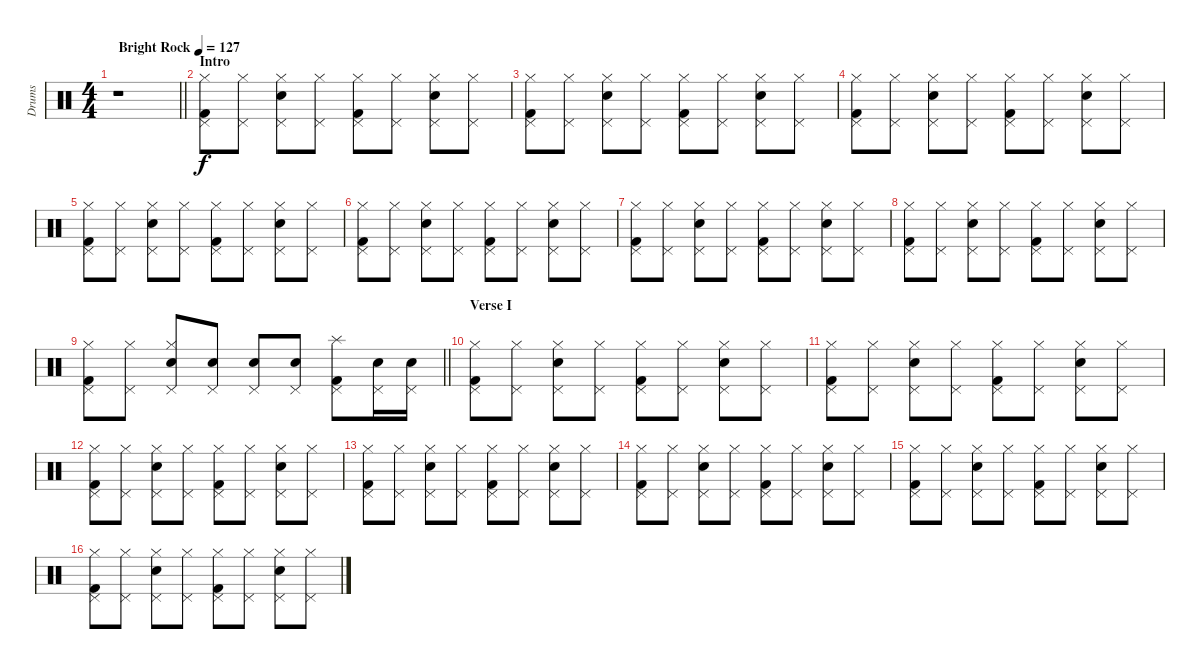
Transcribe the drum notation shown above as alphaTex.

\track ("Drums" "Drums") {instrument percussion}
\staff {score}
\articulation defaults
\ts (4 4)
\tempo (127 "Bright Rock")
\clef neutral
\barLineRight lightlight
\ks c
r.1{dy f} |
\section ("" "Intro")
("Pedal Hi-Hat (hit)" "Hi-Hat (closed)" "Kick (hit) 2").8 ("Pedal Hi-Hat (hit)" "Hi-Hat (closed)").8 ("Pedal Hi-Hat (hit)" "Hi-Hat (closed)" "Electric Snare (hit)").8 ("Pedal Hi-Hat (hit)" "Hi-Hat (closed)").8 ("Pedal Hi-Hat (hit)" "Hi-Hat (closed)" "Kick (hit) 2").8 ("Pedal Hi-Hat (hit)" "Hi-Hat (closed)").8 ("Pedal Hi-Hat (hit)" "Hi-Hat (closed)" "Electric Snare (hit)").8 ("Pedal Hi-Hat (hit)" "Hi-Hat (closed)").8 |
("Pedal Hi-Hat (hit)" "Hi-Hat (closed)" "Kick (hit) 2").8 ("Pedal Hi-Hat (hit)" "Hi-Hat (closed)").8 ("Pedal Hi-Hat (hit)" "Hi-Hat (closed)" "Electric Snare (hit)").8 ("Pedal Hi-Hat (hit)" "Hi-Hat (closed)").8 ("Pedal Hi-Hat (hit)" "Hi-Hat (closed)" "Kick (hit) 2").8 ("Pedal Hi-Hat (hit)" "Hi-Hat (closed)").8 ("Pedal Hi-Hat (hit)" "Hi-Hat (closed)" "Electric Snare (hit)").8 ("Pedal Hi-Hat (hit)" "Hi-Hat (closed)").8 |
("Pedal Hi-Hat (hit)" "Hi-Hat (closed)" "Kick (hit) 2").8 ("Pedal Hi-Hat (hit)" "Hi-Hat (closed)").8 ("Pedal Hi-Hat (hit)" "Hi-Hat (closed)" "Electric Snare (hit)").8 ("Pedal Hi-Hat (hit)" "Hi-Hat (closed)").8 ("Pedal Hi-Hat (hit)" "Hi-Hat (closed)" "Kick (hit) 2").8 ("Pedal Hi-Hat (hit)" "Hi-Hat (closed)").8 ("Pedal Hi-Hat (hit)" "Hi-Hat (closed)" "Electric Snare (hit)").8 ("Pedal Hi-Hat (hit)" "Hi-Hat (closed)").8 |
("Pedal Hi-Hat (hit)" "Hi-Hat (closed)" "Kick (hit) 2").8 ("Pedal Hi-Hat (hit)" "Hi-Hat (closed)").8 ("Pedal Hi-Hat (hit)" "Hi-Hat (closed)" "Electric Snare (hit)").8 ("Pedal Hi-Hat (hit)" "Hi-Hat (closed)").8 ("Pedal Hi-Hat (hit)" "Hi-Hat (closed)" "Kick (hit) 2").8 ("Pedal Hi-Hat (hit)" "Hi-Hat (closed)").8 ("Pedal Hi-Hat (hit)" "Hi-Hat (closed)" "Electric Snare (hit)").8 ("Pedal Hi-Hat (hit)" "Hi-Hat (closed)").8 |
("Pedal Hi-Hat (hit)" "Hi-Hat (closed)" "Kick (hit) 2").8 ("Pedal Hi-Hat (hit)" "Hi-Hat (closed)").8 ("Pedal Hi-Hat (hit)" "Hi-Hat (closed)" "Electric Snare (hit)").8 ("Pedal Hi-Hat (hit)" "Hi-Hat (closed)").8 ("Pedal Hi-Hat (hit)" "Hi-Hat (closed)" "Kick (hit) 2").8 ("Pedal Hi-Hat (hit)" "Hi-Hat (closed)").8 ("Pedal Hi-Hat (hit)" "Hi-Hat (closed)" "Electric Snare (hit)").8 ("Pedal Hi-Hat (hit)" "Hi-Hat (closed)").8 |
("Pedal Hi-Hat (hit)" "Hi-Hat (closed)" "Kick (hit) 2").8 ("Pedal Hi-Hat (hit)" "Hi-Hat (closed)").8 ("Pedal Hi-Hat (hit)" "Hi-Hat (closed)" "Electric Snare (hit)").8 ("Pedal Hi-Hat (hit)" "Hi-Hat (closed)").8 ("Pedal Hi-Hat (hit)" "Hi-Hat (closed)" "Kick (hit) 2").8 ("Pedal Hi-Hat (hit)" "Hi-Hat (closed)").8 ("Pedal Hi-Hat (hit)" "Hi-Hat (closed)" "Electric Snare (hit)").8 ("Pedal Hi-Hat (hit)" "Hi-Hat (closed)").8 |
("Pedal Hi-Hat (hit)" "Hi-Hat (closed)" "Kick (hit) 2").8 ("Pedal Hi-Hat (hit)" "Hi-Hat (closed)").8 ("Pedal Hi-Hat (hit)" "Hi-Hat (closed)" "Electric Snare (hit)").8 ("Pedal Hi-Hat (hit)" "Hi-Hat (closed)").8 ("Pedal Hi-Hat (hit)" "Hi-Hat (closed)" "Kick (hit) 2").8 ("Pedal Hi-Hat (hit)" "Hi-Hat (closed)").8 ("Pedal Hi-Hat (hit)" "Hi-Hat (closed)" "Electric Snare (hit)").8 ("Pedal Hi-Hat (hit)" "Hi-Hat (closed)").8 |
\barLineRight lightlight
("Pedal Hi-Hat (hit)" "Hi-Hat (closed)" "Kick (hit) 2").8 ("Pedal Hi-Hat (hit)" "Hi-Hat (closed)").8 ("Pedal Hi-Hat (hit)" "Hi-Hat (closed)" "Electric Snare (hit)").8 ("Pedal Hi-Hat (hit)" "Electric Snare (hit)").8 ("Pedal Hi-Hat (hit)" "Electric Snare (hit)").8 ("Pedal Hi-Hat (hit)" "Electric Snare (hit)").8 ("Pedal Hi-Hat (hit)" "Splash (hit)" "Kick (hit) 2").8 ("Pedal Hi-Hat (hit)" "Electric Snare (hit)").16 ("Pedal Hi-Hat (hit)" "Electric Snare (hit)").16 |
\section ("" "Verse I")
("Pedal Hi-Hat (hit)" "Hi-Hat (closed)" "Kick (hit) 2").8 ("Pedal Hi-Hat (hit)" "Hi-Hat (closed)").8 ("Pedal Hi-Hat (hit)" "Hi-Hat (closed)" "Electric Snare (hit)").8 ("Pedal Hi-Hat (hit)" "Hi-Hat (closed)").8 ("Pedal Hi-Hat (hit)" "Hi-Hat (closed)" "Kick (hit) 2").8 ("Pedal Hi-Hat (hit)" "Hi-Hat (closed)").8 ("Pedal Hi-Hat (hit)" "Hi-Hat (closed)" "Electric Snare (hit)").8 ("Pedal Hi-Hat (hit)" "Hi-Hat (closed)").8 |
("Pedal Hi-Hat (hit)" "Hi-Hat (closed)" "Kick (hit) 2").8 ("Pedal Hi-Hat (hit)" "Hi-Hat (closed)").8 ("Pedal Hi-Hat (hit)" "Hi-Hat (closed)" "Electric Snare (hit)").8 ("Pedal Hi-Hat (hit)" "Hi-Hat (closed)").8 ("Pedal Hi-Hat (hit)" "Hi-Hat (closed)" "Kick (hit) 2").8 ("Pedal Hi-Hat (hit)" "Hi-Hat (closed)").8 ("Pedal Hi-Hat (hit)" "Hi-Hat (closed)" "Electric Snare (hit)").8 ("Pedal Hi-Hat (hit)" "Hi-Hat (closed)").8 |
("Pedal Hi-Hat (hit)" "Hi-Hat (closed)" "Kick (hit) 2").8 ("Pedal Hi-Hat (hit)" "Hi-Hat (closed)").8 ("Pedal Hi-Hat (hit)" "Hi-Hat (closed)" "Electric Snare (hit)").8 ("Pedal Hi-Hat (hit)" "Hi-Hat (closed)").8 ("Pedal Hi-Hat (hit)" "Hi-Hat (closed)" "Kick (hit) 2").8 ("Pedal Hi-Hat (hit)" "Hi-Hat (closed)").8 ("Pedal Hi-Hat (hit)" "Hi-Hat (closed)" "Electric Snare (hit)").8 ("Pedal Hi-Hat (hit)" "Hi-Hat (closed)").8 |
("Pedal Hi-Hat (hit)" "Hi-Hat (closed)" "Kick (hit) 2").8 ("Pedal Hi-Hat (hit)" "Hi-Hat (closed)").8 ("Pedal Hi-Hat (hit)" "Hi-Hat (closed)" "Electric Snare (hit)").8 ("Pedal Hi-Hat (hit)" "Hi-Hat (closed)").8 ("Pedal Hi-Hat (hit)" "Hi-Hat (closed)" "Kick (hit) 2").8 ("Pedal Hi-Hat (hit)" "Hi-Hat (closed)").8 ("Pedal Hi-Hat (hit)" "Hi-Hat (closed)" "Electric Snare (hit)").8 ("Pedal Hi-Hat (hit)" "Hi-Hat (closed)").8 |
("Pedal Hi-Hat (hit)" "Hi-Hat (closed)" "Kick (hit) 2").8 ("Pedal Hi-Hat (hit)" "Hi-Hat (closed)").8 ("Pedal Hi-Hat (hit)" "Hi-Hat (closed)" "Electric Snare (hit)").8 ("Pedal Hi-Hat (hit)" "Hi-Hat (closed)").8 ("Pedal Hi-Hat (hit)" "Hi-Hat (closed)" "Kick (hit) 2").8 ("Pedal Hi-Hat (hit)" "Hi-Hat (closed)").8 ("Pedal Hi-Hat (hit)" "Hi-Hat (closed)" "Electric Snare (hit)").8 ("Pedal Hi-Hat (hit)" "Hi-Hat (closed)").8 |
("Pedal Hi-Hat (hit)" "Hi-Hat (closed)" "Kick (hit) 2").8 ("Pedal Hi-Hat (hit)" "Hi-Hat (closed)").8 ("Pedal Hi-Hat (hit)" "Hi-Hat (closed)" "Electric Snare (hit)").8 ("Pedal Hi-Hat (hit)" "Hi-Hat (closed)").8 ("Pedal Hi-Hat (hit)" "Hi-Hat (closed)" "Kick (hit) 2").8 ("Pedal Hi-Hat (hit)" "Hi-Hat (closed)").8 ("Pedal Hi-Hat (hit)" "Hi-Hat (closed)" "Electric Snare (hit)").8 ("Pedal Hi-Hat (hit)" "Hi-Hat (closed)").8 |
("Pedal Hi-Hat (hit)" "Hi-Hat (closed)" "Kick (hit) 2").8 ("Pedal Hi-Hat (hit)" "Hi-Hat (closed)").8 ("Pedal Hi-Hat (hit)" "Hi-Hat (closed)" "Electric Snare (hit)").8 ("Pedal Hi-Hat (hit)" "Hi-Hat (closed)").8 ("Pedal Hi-Hat (hit)" "Hi-Hat (closed)" "Kick (hit) 2").8 ("Pedal Hi-Hat (hit)" "Hi-Hat (closed)").8 ("Pedal Hi-Hat (hit)" "Hi-Hat (closed)" "Electric Snare (hit)").8 ("Pedal Hi-Hat (hit)" "Hi-Hat (closed)").8
